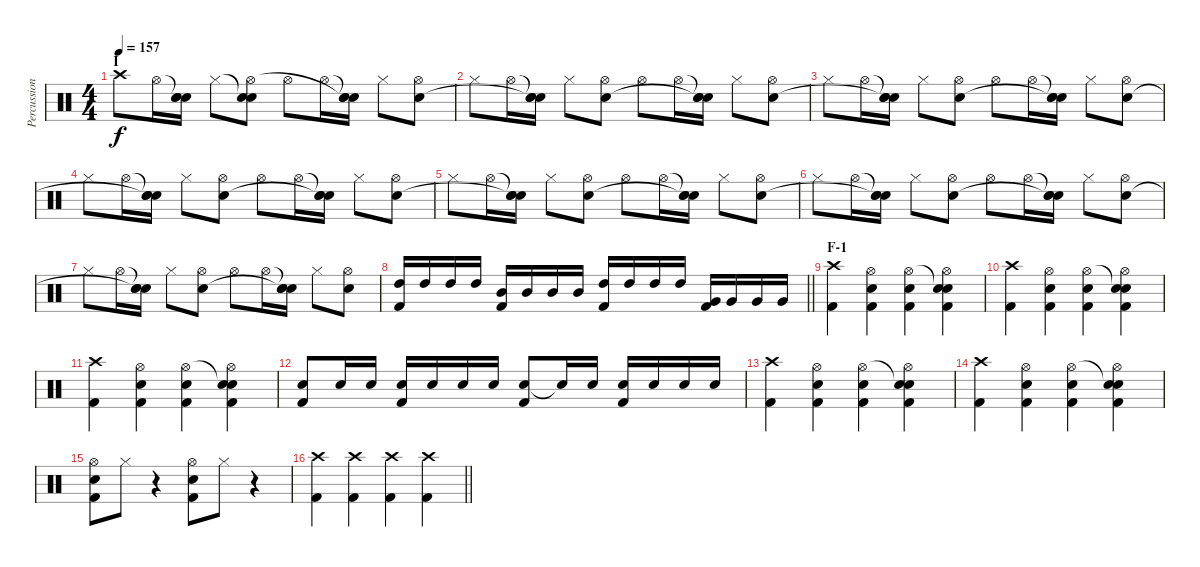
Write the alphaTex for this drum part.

\track ("Percussion" "Percussion") {instrument percussion}
\staff {score}
\articulation defaults
\ts (4 4)
\section ("" "I")
\tempo 157
\clef neutral
\ks c "Crash high (hit)".8{dy f} "Hi-Hat (open)".16
("Snare (hit)"{t} "Snare (hit)"{t} "Electric Snare (hit)").16 "Hi-Hat (closed)".8 ("Snare (hit)"{t} "Hi-Hat (open)" "Electric Snare (hit)").8 "Hi-Hat (open)".8 "Hi-Hat (open)".16 ("Snare (hit)"{t} "Snare (hit)"{t} "Electric Snare (hit)").16 "Hi-Hat (closed)".8 ("Hi-Hat (open)" "Electric Snare (hit)").8 |
"Hi-Hat (closed)".8 "Hi-Hat (open)".16 ("Snare (hit)"{t} "Snare (hit)"{t} "Electric Snare (hit)").16 "Hi-Hat (closed)".8 ("Hi-Hat (open)" "Electric Snare (hit)").8 "Hi-Hat (open)".8 "Hi-Hat (open)".16 ("Snare (hit)"{t} "Snare (hit)"{t} "Electric Snare (hit)").16 "Hi-Hat (closed)".8 ("Hi-Hat (open)" "Electric Snare (hit)").8 |
"Hi-Hat (closed)".8 "Hi-Hat (open)".16 ("Snare (hit)"{t} "Snare (hit)"{t} "Electric Snare (hit)").16 "Hi-Hat (closed)".8 ("Hi-Hat (open)" "Electric Snare (hit)").8 "Hi-Hat (open)".8 "Hi-Hat (open)".16 ("Snare (hit)"{t} "Snare (hit)"{t} "Electric Snare (hit)").16 "Hi-Hat (closed)".8 ("Hi-Hat (open)" "Electric Snare (hit)").8 |
"Hi-Hat (closed)".8 "Hi-Hat (open)".16 ("Snare (hit)"{t} "Snare (hit)"{t} "Electric Snare (hit)").16 "Hi-Hat (closed)".8 ("Hi-Hat (open)" "Electric Snare (hit)").8 "Hi-Hat (open)".8 "Hi-Hat (open)".16 ("Snare (hit)"{t} "Snare (hit)"{t} "Electric Snare (hit)").16 "Hi-Hat (closed)".8 ("Hi-Hat (open)" "Electric Snare (hit)").8 |
"Hi-Hat (closed)".8 "Hi-Hat (open)".16 ("Snare (hit)"{t} "Snare (hit)"{t} "Electric Snare (hit)").16 "Hi-Hat (closed)".8 ("Hi-Hat (open)" "Electric Snare (hit)").8 "Hi-Hat (open)".8 "Hi-Hat (open)".16 ("Snare (hit)"{t} "Snare (hit)"{t} "Electric Snare (hit)").16 "Hi-Hat (closed)".8 ("Hi-Hat (open)" "Electric Snare (hit)").8 |
"Hi-Hat (closed)".8 "Hi-Hat (open)".16 ("Snare (hit)"{t} "Snare (hit)"{t} "Electric Snare (hit)").16 "Hi-Hat (closed)".8 ("Hi-Hat (open)" "Electric Snare (hit)").8 "Hi-Hat (open)".8 "Hi-Hat (open)".16 ("Snare (hit)"{t} "Snare (hit)"{t} "Electric Snare (hit)").16 "Hi-Hat (closed)".8 ("Hi-Hat (open)" "Electric Snare (hit)").8 |
"Hi-Hat (closed)".8 "Hi-Hat (open)".16 ("Snare (hit)"{t} "Snare (hit)"{t} "Electric Snare (hit)").16 "Hi-Hat (closed)".8 ("Hi-Hat (open)" "Electric Snare (hit)").8 "Hi-Hat (open)".8 "Hi-Hat (open)".16 ("Snare (hit)"{t} "Snare (hit)"{t} "Electric Snare (hit)").16 "Hi-Hat (closed)".8 ("Hi-Hat (open)" "Electric Snare (hit)").8 |
\barLineRight lightlight
("High Tom (hit)" "Kick (hit) 2").16 "High Tom (hit)".16 "High Tom (hit)".16 "High Tom (hit)".16 ("Mid Tom (hit)" "Kick (hit) 2").16 "Mid Tom (hit)".16 "Mid Tom (hit)".16 "Mid Tom (hit)".16 ("High Tom (hit)" "Kick (hit) 2").16 "High Tom (hit)".16 "High Tom (hit)".16 "High Tom (hit)".16 ("Very Low Tom (hit)" "Kick (hit) 2").16 "Very Low Tom (hit)".16 "Very Low Tom (hit)".16 "Very Low Tom (hit)".16 |
\section ("" "F-1")
("Crash high (hit)" "Kick (hit) 2").4 ("Hi-Hat (open)" "Electric Snare (hit)" "Kick (hit) 2").4 ("Hi-Hat (open)" "Electric Snare (hit)" "Kick (hit) 2").4 ("Snare (hit)"{t} "Hi-Hat (open)" "Electric Snare (hit)" "Kick (hit) 2").4 |
("Crash high (hit)" "Kick (hit) 2").4 ("Hi-Hat (open)" "Electric Snare (hit)" "Kick (hit) 2").4 ("Hi-Hat (open)" "Electric Snare (hit)" "Kick (hit) 2").4 ("Snare (hit)"{t} "Hi-Hat (open)" "Electric Snare (hit)" "Kick (hit) 2").4 |
("Crash high (hit)" "Kick (hit) 2").4 ("Hi-Hat (open)" "Electric Snare (hit)" "Kick (hit) 2").4 ("Hi-Hat (open)" "Electric Snare (hit)" "Kick (hit) 2").4 ("Snare (hit)"{t} "Hi-Hat (open)" "Electric Snare (hit)" "Kick (hit) 2").4 |
("Electric Snare (hit)" "Kick (hit) 2").8 "Electric Snare (hit)".16 "Electric Snare (hit)".16 ("Electric Snare (hit)" "Kick (hit) 2").16 "Electric Snare (hit)".16 "Electric Snare (hit)".16 "Electric Snare (hit)".16 ("Electric Snare (hit)" "Kick (hit) 2").8 "Electric Snare (hit)"{t}.16 "Electric Snare (hit)".16 ("Electric Snare (hit)" "Kick (hit) 2").16 "Electric Snare (hit)".16 "Electric Snare (hit)".16 "Electric Snare (hit)".16 |
("Crash high (hit)" "Kick (hit) 2").4 ("Hi-Hat (open)" "Electric Snare (hit)" "Kick (hit) 2").4 ("Hi-Hat (open)" "Electric Snare (hit)" "Kick (hit) 2").4 ("Snare (hit)"{t} "Hi-Hat (open)" "Electric Snare (hit)" "Kick (hit) 2").4 |
("Crash high (hit)" "Kick (hit) 2").4 ("Hi-Hat (open)" "Electric Snare (hit)" "Kick (hit) 2").4 ("Hi-Hat (open)" "Electric Snare (hit)" "Kick (hit) 2").4 ("Snare (hit)"{t} "Hi-Hat (open)" "Electric Snare (hit)" "Kick (hit) 2").4 |
("Hi-Hat (open)" "Electric Snare (hit)" "Kick (hit) 2").8 "Hi-Hat (closed)".8 r.4 ("Hi-Hat (open)" "Electric Snare (hit)" "Kick (hit) 2").8 "Hi-Hat (closed)".8 r.4 |
\barLineRight lightlight
("Crash high (hit)" "Kick (hit) 2").4 ("Crash high (hit)" "Kick (hit) 2").4 ("Crash high (hit)" "Kick (hit) 2").4 ("Crash high (hit)" "Kick (hit) 2").4
